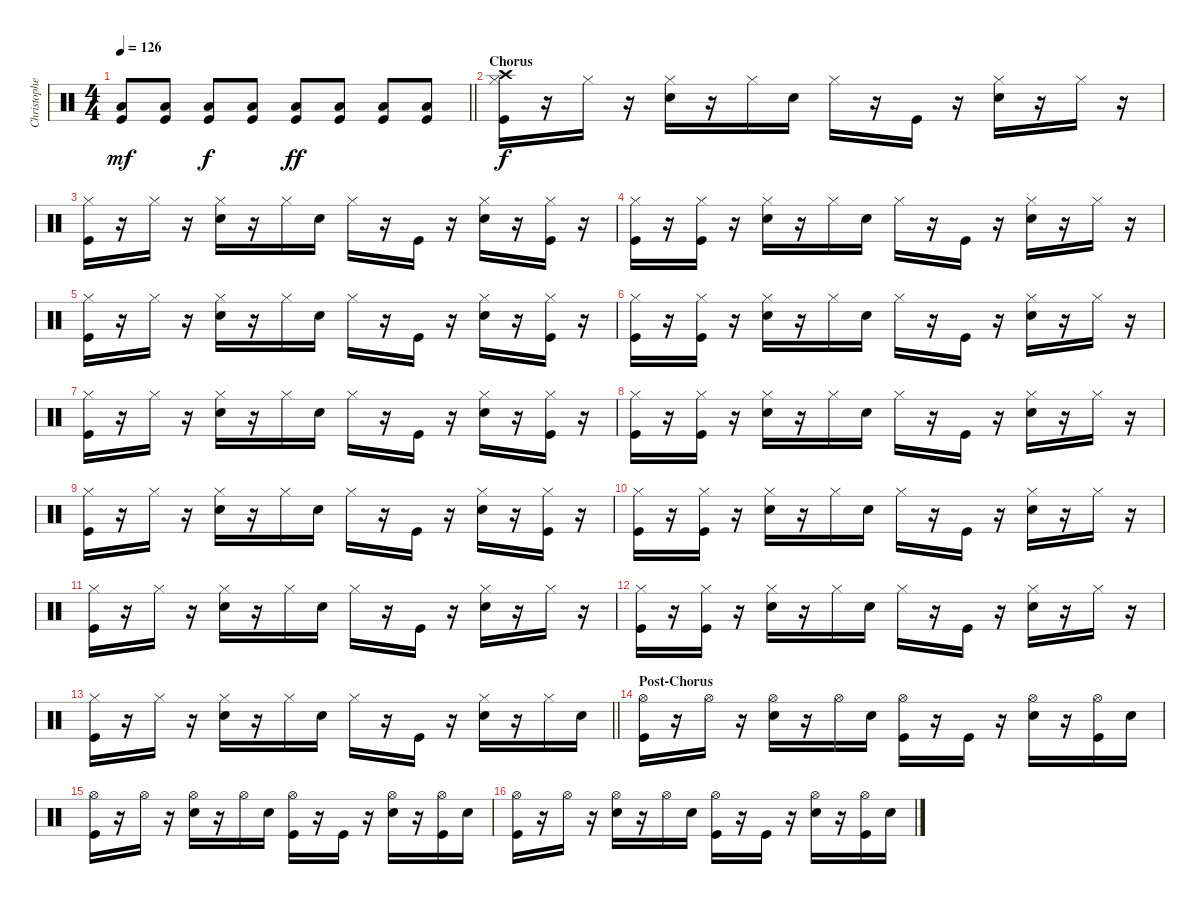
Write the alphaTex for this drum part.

\track ("Christopher - Drums" "Christophe") {instrument percussion}
\staff {score}
\articulation defaults
\ts (4 4)
\tempo 126
\clef neutral
\barLineRight lightlight
\ks c
("Low Floor Tom (hit)" "Kick (hit)").8{dy mf} ("Low Floor Tom (hit)" "Kick (hit)").8 ("Low Floor Tom (hit)" "Kick (hit)").8{dy f} ("Low Floor Tom (hit)" "Kick (hit)").8 ("Low Floor Tom (hit)" "Kick (hit)").8{dy ff} ("Low Floor Tom (hit)" "Kick (hit)").8 ("Low Floor Tom (hit)" "Kick (hit)").8 ("Low Floor Tom (hit)" "Kick (hit)").8 |
\section ("" "Chorus")
("Crash high (hit)" "Hi-Hat (closed)" "Kick (hit)").16{dy f} r.16 "Hi-Hat (closed)".16 r.16 ("Hi-Hat (closed)" "Snare (hit) 2").16 r.16 "Hi-Hat (closed)".16 "Snare (hit) 2".16 "Hi-Hat (closed)".16 r.16 "Kick (hit)".16 r.16 ("Hi-Hat (closed)" "Snare (hit) 2").16 r.16 "Hi-Hat (closed)".16 r.16 |
("Hi-Hat (closed)" "Kick (hit)").16 r.16 "Hi-Hat (closed)".16 r.16 ("Hi-Hat (closed)" "Snare (hit) 2").16 r.16 "Hi-Hat (closed)".16 "Snare (hit) 2".16 "Hi-Hat (closed)".16 r.16 "Kick (hit)".16 r.16 ("Hi-Hat (closed)" "Snare (hit) 2").16 r.16 ("Hi-Hat (closed)" "Kick (hit)").16 r.16 |
("Hi-Hat (closed)" "Kick (hit)").16 r.16 ("Hi-Hat (closed)" "Kick (hit)").16 r.16 ("Hi-Hat (closed)" "Snare (hit) 2").16 r.16 "Hi-Hat (closed)".16 "Snare (hit) 2".16 "Hi-Hat (closed)".16 r.16 "Kick (hit)".16 r.16 ("Hi-Hat (closed)" "Snare (hit) 2").16 r.16 "Hi-Hat (closed)".16 r.16 |
("Hi-Hat (closed)" "Kick (hit)").16 r.16 "Hi-Hat (closed)".16 r.16 ("Hi-Hat (closed)" "Snare (hit) 2").16 r.16 "Hi-Hat (closed)".16 "Snare (hit) 2".16 "Hi-Hat (closed)".16 r.16 "Kick (hit)".16 r.16 ("Hi-Hat (closed)" "Snare (hit) 2").16 r.16 ("Hi-Hat (closed)" "Kick (hit)").16 r.16 |
("Hi-Hat (closed)" "Kick (hit)").16 r.16 ("Hi-Hat (closed)" "Kick (hit)").16 r.16 ("Hi-Hat (closed)" "Snare (hit) 2").16 r.16 "Hi-Hat (closed)".16 "Snare (hit) 2".16 "Hi-Hat (closed)".16 r.16 "Kick (hit)".16 r.16 ("Hi-Hat (closed)" "Snare (hit) 2").16 r.16 "Hi-Hat (closed)".16 r.16 |
("Hi-Hat (closed)" "Kick (hit)").16 r.16 "Hi-Hat (closed)".16 r.16 ("Hi-Hat (closed)" "Snare (hit) 2").16 r.16 "Hi-Hat (closed)".16 "Snare (hit) 2".16 "Hi-Hat (closed)".16 r.16 "Kick (hit)".16 r.16 ("Hi-Hat (closed)" "Snare (hit) 2").16 r.16 ("Hi-Hat (closed)" "Kick (hit)").16 r.16 |
("Hi-Hat (closed)" "Kick (hit)").16 r.16 ("Hi-Hat (closed)" "Kick (hit)").16 r.16 ("Hi-Hat (closed)" "Snare (hit) 2").16 r.16 "Hi-Hat (closed)".16 "Snare (hit) 2".16 "Hi-Hat (closed)".16 r.16 "Kick (hit)".16 r.16 ("Hi-Hat (closed)" "Snare (hit) 2").16 r.16 "Hi-Hat (closed)".16 r.16 |
("Hi-Hat (closed)" "Kick (hit)").16 r.16 "Hi-Hat (closed)".16 r.16 ("Hi-Hat (closed)" "Snare (hit) 2").16 r.16 "Hi-Hat (closed)".16 "Snare (hit) 2".16 "Hi-Hat (closed)".16 r.16 "Kick (hit)".16 r.16 ("Hi-Hat (closed)" "Snare (hit) 2").16 r.16 ("Hi-Hat (closed)" "Kick (hit)").16 r.16 |
("Hi-Hat (closed)" "Kick (hit)").16 r.16 ("Hi-Hat (closed)" "Kick (hit)").16 r.16 ("Hi-Hat (closed)" "Snare (hit) 2").16 r.16 "Hi-Hat (closed)".16 "Snare (hit) 2".16 "Hi-Hat (closed)".16 r.16 "Kick (hit)".16 r.16 ("Hi-Hat (closed)" "Snare (hit) 2").16 r.16 "Hi-Hat (closed)".16 r.16 |
("Hi-Hat (closed)" "Kick (hit)").16 r.16 "Hi-Hat (closed)".16 r.16 ("Hi-Hat (closed)" "Snare (hit) 2").16 r.16 "Hi-Hat (closed)".16 "Snare (hit) 2".16 "Hi-Hat (closed)".16 r.16 "Kick (hit)".16 r.16 ("Hi-Hat (closed)" "Snare (hit) 2").16 r.16 "Hi-Hat (closed)".16 r.16 |
("Hi-Hat (closed)" "Kick (hit)").16 r.16 ("Hi-Hat (closed)" "Kick (hit)").16 r.16 ("Hi-Hat (closed)" "Snare (hit) 2").16 r.16 "Hi-Hat (closed)".16 "Snare (hit) 2".16 "Hi-Hat (closed)".16 r.16 "Kick (hit)".16 r.16 ("Hi-Hat (closed)" "Snare (hit) 2").16 r.16 "Hi-Hat (closed)".16 r.16 |
\barLineRight lightlight
("Hi-Hat (closed)" "Kick (hit)").16 r.16 "Hi-Hat (closed)".16 r.16 ("Hi-Hat (closed)" "Snare (hit) 2").16 r.16 "Hi-Hat (closed)".16 "Snare (hit) 2".16 "Hi-Hat (closed)".16 r.16 "Kick (hit)".16 r.16 ("Hi-Hat (closed)" "Snare (hit) 2").16 r.16 "Hi-Hat (closed)".16 "Snare (hit) 2".16 |
\section ("" "Post-Chorus")
("Hi-Hat (open)" "Kick (hit)").16 r.16 "Hi-Hat (open)".16 r.16 ("Hi-Hat (open)" "Snare (hit) 2").16 r.16 "Hi-Hat (open)".16 "Snare (hit) 2".16 ("Hi-Hat (open)" "Kick (hit)").16 r.16 "Kick (hit)".16 r.16 ("Hi-Hat (open)" "Snare (hit) 2").16 r.16 ("Hi-Hat (open)" "Kick (hit)").16 "Snare (hit) 2".16 |
("Hi-Hat (open)" "Kick (hit)").16 r.16 "Hi-Hat (open)".16 r.16 ("Hi-Hat (open)" "Snare (hit) 2").16 r.16 "Hi-Hat (open)".16 "Snare (hit) 2".16 ("Hi-Hat (open)" "Kick (hit)").16 r.16 "Kick (hit)".16 r.16 ("Hi-Hat (open)" "Snare (hit) 2").16 r.16 ("Hi-Hat (open)" "Kick (hit)").16 "Snare (hit) 2".16 |
("Hi-Hat (open)" "Kick (hit)").16 r.16 "Hi-Hat (open)".16 r.16 ("Hi-Hat (open)" "Snare (hit) 2").16 r.16 "Hi-Hat (open)".16 "Snare (hit) 2".16 ("Hi-Hat (open)" "Kick (hit)").16 r.16 "Kick (hit)".16 r.16 ("Hi-Hat (open)" "Snare (hit) 2").16 r.16 ("Hi-Hat (open)" "Kick (hit)").16 "Snare (hit) 2".16
